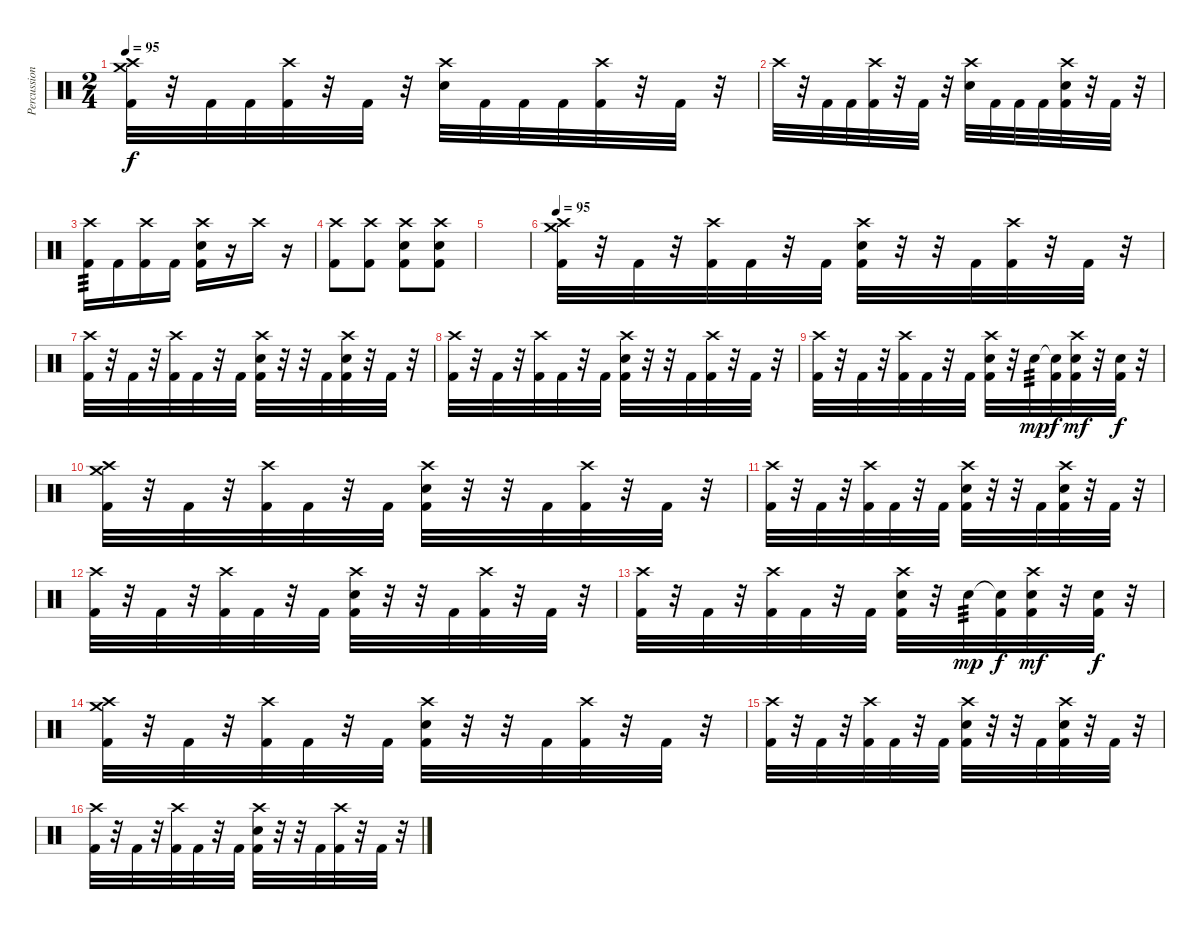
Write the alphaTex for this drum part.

\track ("Percussion" "Percussion") {instrument percussion}
\staff {score}
\articulation defaults
\ts (2 4)
\tempo 95
\clef neutral
\ks c
("Crash medium (hit)" "Crash high (hit)" "Kick (hit) 2").32{dy f} r.32 "Kick (hit) 2".32 "Kick (hit) 2".32 ("Crash high (hit)" "Kick (hit) 2").32 r.32 "Kick (hit) 2".32 r.32 ("Crash high (hit)" "Electric Snare (hit)").32 "Kick (hit) 2".32 "Kick (hit) 2".32 "Kick (hit) 2".32 ("Crash high (hit)" "Kick (hit) 2").32 r.32 "Kick (hit) 2".32 r.32 |
"Crash high (hit)".32 r.32 "Kick (hit) 2".32 "Kick (hit) 2".32 ("Crash high (hit)" "Kick (hit) 2").32 r.32 "Kick (hit) 2".32 r.32 ("Crash high (hit)" "Electric Snare (hit)").32 "Kick (hit) 2".32 "Kick (hit) 2".32 "Kick (hit) 2".32 ("Crash high (hit)" "Electric Snare (hit)" "Kick (hit) 2").32 r.32 "Kick (hit) 2".32 r.32 |
("Crash high (hit)" "Kick (hit) 2").16{tp 3} "Kick (hit) 2".16 ("Crash high (hit)" "Kick (hit) 2").16 "Kick (hit) 2".16 ("Crash high (hit)" "Electric Snare (hit)" "Kick (hit) 2").16 r.16 "Crash high (hit)".16 r.16 |
("Crash high (hit)" "Kick (hit) 2").8 ("Crash high (hit)" "Kick (hit) 2").8 ("Crash high (hit)" "Electric Snare (hit)" "Kick (hit) 2").8 ("Crash high (hit)" "Electric Snare (hit)" "Kick (hit) 2").8 |
|
\tempo 95
("Crash medium (hit)" "Crash high (hit)" "Kick (hit) 2").32 r.32 "Kick (hit) 2".32 r.32 ("Crash high (hit)" "Kick (hit) 2").32 "Kick (hit) 2".32 r.32 "Kick (hit) 2".32 ("Crash high (hit)" "Electric Snare (hit)" "Kick (hit) 2").32 r.32 r.32 "Kick (hit) 2".32 ("Crash high (hit)" "Kick (hit) 2").32 r.32 "Kick (hit) 2".32 r.32 |
("Crash high (hit)" "Kick (hit) 2").32 r.32 "Kick (hit) 2".32 r.32 ("Crash high (hit)" "Kick (hit) 2").32 "Kick (hit) 2".32 r.32 "Kick (hit) 2".32 ("Crash high (hit)" "Electric Snare (hit)" "Kick (hit) 2").32 r.32 r.32 "Kick (hit) 2".32 ("Crash high (hit)" "Electric Snare (hit)" "Kick (hit) 2").32 r.32 "Kick (hit) 2".32 r.32 |
("Crash high (hit)" "Kick (hit) 2").32 r.32 "Kick (hit) 2".32 r.32 ("Crash high (hit)" "Kick (hit) 2").32 "Kick (hit) 2".32 r.32 "Kick (hit) 2".32 ("Crash high (hit)" "Electric Snare (hit)" "Kick (hit) 2").32 r.32 r.32 "Kick (hit) 2".32 ("Crash high (hit)" "Kick (hit) 2").32 r.32 "Kick (hit) 2".32 r.32 |
("Crash high (hit)" "Kick (hit) 2").32 r.32 "Kick (hit) 2".32 r.32 ("Crash high (hit)" "Kick (hit) 2").32 "Kick (hit) 2".32 r.32 "Kick (hit) 2".32 ("Crash high (hit)" "Electric Snare (hit)" "Kick (hit) 2").32 r.32 "Electric Snare (hit)".32{tp 3 dy mp} ("Snare (hit)"{t} "Kick (hit) 2").32{dy f} ("Crash high (hit)" "Electric Snare (hit)" "Kick (hit) 2").32{dy mf} r.32 ("Electric Snare (hit)" "Kick (hit) 2").32{dy f} r.32 |
("Crash medium (hit)" "Crash high (hit)" "Kick (hit) 2").32 r.32 "Kick (hit) 2".32 r.32 ("Crash high (hit)" "Kick (hit) 2").32 "Kick (hit) 2".32 r.32 "Kick (hit) 2".32 ("Crash high (hit)" "Electric Snare (hit)" "Kick (hit) 2").32 r.32 r.32 "Kick (hit) 2".32 ("Crash high (hit)" "Kick (hit) 2").32 r.32 "Kick (hit) 2".32 r.32 |
("Crash high (hit)" "Kick (hit) 2").32 r.32 "Kick (hit) 2".32 r.32 ("Crash high (hit)" "Kick (hit) 2").32 "Kick (hit) 2".32 r.32 "Kick (hit) 2".32 ("Crash high (hit)" "Electric Snare (hit)" "Kick (hit) 2").32 r.32 r.32 "Kick (hit) 2".32 ("Crash high (hit)" "Electric Snare (hit)" "Kick (hit) 2").32 r.32 "Kick (hit) 2".32 r.32 |
("Crash high (hit)" "Kick (hit) 2").32 r.32 "Kick (hit) 2".32 r.32 ("Crash high (hit)" "Kick (hit) 2").32 "Kick (hit) 2".32 r.32 "Kick (hit) 2".32 ("Crash high (hit)" "Electric Snare (hit)" "Kick (hit) 2").32 r.32 r.32 "Kick (hit) 2".32 ("Crash high (hit)" "Kick (hit) 2").32 r.32 "Kick (hit) 2".32 r.32 |
("Crash high (hit)" "Kick (hit) 2").32 r.32 "Kick (hit) 2".32 r.32 ("Crash high (hit)" "Kick (hit) 2").32 "Kick (hit) 2".32 r.32 "Kick (hit) 2".32 ("Crash high (hit)" "Electric Snare (hit)" "Kick (hit) 2").32 r.32 "Electric Snare (hit)".32{tp 3 dy mp} ("Snare (hit)"{t} "Kick (hit) 2").32{dy f} ("Crash high (hit)" "Electric Snare (hit)" "Kick (hit) 2").32{dy mf} r.32 ("Electric Snare (hit)" "Kick (hit) 2").32{dy f} r.32 |
("Crash medium (hit)" "Crash high (hit)" "Kick (hit) 2").32 r.32 "Kick (hit) 2".32 r.32 ("Crash high (hit)" "Kick (hit) 2").32 "Kick (hit) 2".32 r.32 "Kick (hit) 2".32 ("Crash high (hit)" "Electric Snare (hit)" "Kick (hit) 2").32 r.32 r.32 "Kick (hit) 2".32 ("Crash high (hit)" "Kick (hit) 2").32 r.32 "Kick (hit) 2".32 r.32 |
("Crash high (hit)" "Kick (hit) 2").32 r.32 "Kick (hit) 2".32 r.32 ("Crash high (hit)" "Kick (hit) 2").32 "Kick (hit) 2".32 r.32 "Kick (hit) 2".32 ("Crash high (hit)" "Electric Snare (hit)" "Kick (hit) 2").32 r.32 r.32 "Kick (hit) 2".32 ("Crash high (hit)" "Electric Snare (hit)" "Kick (hit) 2").32 r.32 "Kick (hit) 2".32 r.32 |
("Crash high (hit)" "Kick (hit) 2").32 r.32 "Kick (hit) 2".32 r.32 ("Crash high (hit)" "Kick (hit) 2").32 "Kick (hit) 2".32 r.32 "Kick (hit) 2".32 ("Crash high (hit)" "Electric Snare (hit)" "Kick (hit) 2").32 r.32 r.32 "Kick (hit) 2".32 ("Crash high (hit)" "Kick (hit) 2").32 r.32 "Kick (hit) 2".32 r.32
